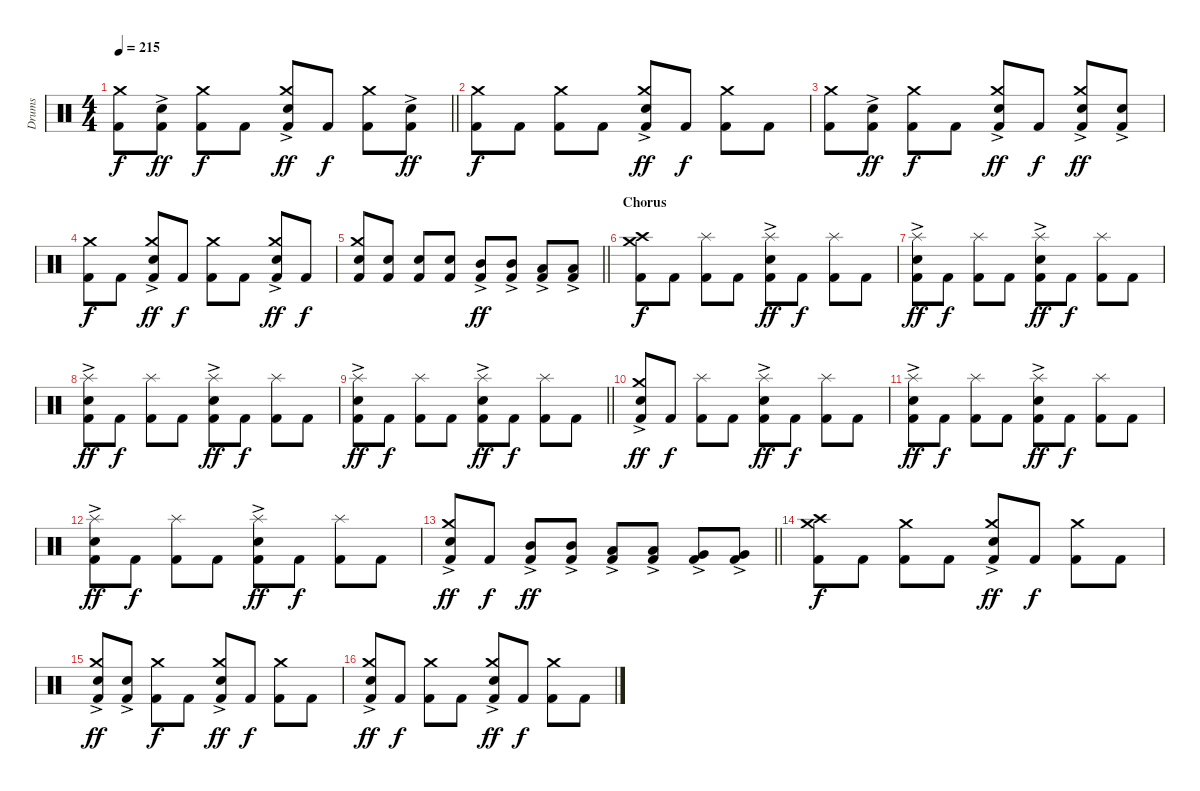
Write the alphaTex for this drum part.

\track ("Drums" "Drums") {instrument percussion}
\staff {score}
\articulation defaults
\ts (4 4)
\tempo 215
\clef neutral
\barLineRight lightlight
\ks c
("Kick (hit) 2" "Crash medium (hit)").8{dy f} ("Kick (hit) 2" "Snare (hit) 2"{ac}).8{dy ff} ("Kick (hit) 2" "Crash medium (hit)").8{dy f} "Kick (hit) 2".8 ("Kick (hit) 2" "Snare (hit) 2"{ac} "Crash medium (hit)").8{dy ff} "Kick (hit) 2".8{dy f} ("Kick (hit) 2" "Crash medium (hit)").8 ("Kick (hit) 2" "Snare (hit) 2"{ac}).8{dy ff} |
\section ("" "")
("Kick (hit) 2" "Crash medium (hit)").8{dy f} "Kick (hit) 2".8 ("Kick (hit) 2" "Crash medium (hit)").8 "Kick (hit) 2".8 ("Kick (hit) 2" "Snare (hit) 2"{ac} "Crash medium (hit)").8{dy ff} "Kick (hit) 2".8{dy f} ("Kick (hit) 2" "Crash medium (hit)").8 "Kick (hit) 2".8 |
("Kick (hit) 2" "Crash medium (hit)").8 ("Kick (hit) 2" "Snare (hit) 2"{ac}).8{dy ff} ("Kick (hit) 2" "Crash medium (hit)").8{dy f} "Kick (hit) 2".8 ("Kick (hit) 2" "Snare (hit) 2"{ac} "Crash medium (hit)").8{dy ff} "Kick (hit) 2".8{dy f} ("Kick (hit) 2" "Snare (hit) 2"{ac} "Crash medium (hit)").8{dy ff} ("Kick (hit) 2" "Snare (hit) 2"{ac}).8 |
("Kick (hit) 2" "Crash medium (hit)").8{dy f} "Kick (hit) 2".8 ("Kick (hit) 2" "Snare (hit) 2"{ac} "Crash medium (hit)").8{dy ff} "Kick (hit) 2".8{dy f} ("Kick (hit) 2" "Crash medium (hit)").8 "Kick (hit) 2".8 ("Kick (hit) 2" "Snare (hit) 2"{ac} "Crash medium (hit)").8{dy ff} "Kick (hit) 2".8{dy f} |
\barLineRight lightlight
("Kick (hit) 2" "Snare (hit) 2" "Crash medium (hit)").8 ("Kick (hit) 2" "Snare (hit) 2").8 ("Kick (hit) 2" "Snare (hit) 2").8 ("Kick (hit) 2" "Snare (hit) 2").8 ("Kick (hit) 2" "Mid Tom (hit)"{ac}).8{dy ff} ("Kick (hit) 2" "Mid Tom (hit)"{ac}).8 ("Kick (hit) 2" "Low Tom (hit)"{ac}).8 ("Kick (hit) 2" "Low Tom (hit)"{ac}).8 |
\section ("" "Chorus")
("Kick (hit) 2" "Crash medium (hit)" "Crash high (hit)").8{dy f} "Kick (hit) 2".8 ("Kick (hit) 2" "Splash (hit)").8 "Kick (hit) 2".8 ("Kick (hit) 2" "Snare (hit) 2"{ac} "Splash (hit)").8{dy ff} "Kick (hit) 2".8{dy f} ("Kick (hit) 2" "Splash (hit)").8 "Kick (hit) 2".8 |
("Kick (hit) 2" "Snare (hit) 2"{ac} "Splash (hit)").8{dy ff} "Kick (hit) 2".8{dy f} ("Kick (hit) 2" "Splash (hit)").8 "Kick (hit) 2".8 ("Kick (hit) 2" "Snare (hit) 2"{ac} "Splash (hit)").8{dy ff} "Kick (hit) 2".8{dy f} ("Kick (hit) 2" "Splash (hit)").8 "Kick (hit) 2".8 |
("Kick (hit) 2" "Snare (hit) 2"{ac} "Splash (hit)").8{dy ff} "Kick (hit) 2".8{dy f} ("Kick (hit) 2" "Splash (hit)").8 "Kick (hit) 2".8 ("Kick (hit) 2" "Snare (hit) 2"{ac} "Splash (hit)").8{dy ff} "Kick (hit) 2".8{dy f} ("Kick (hit) 2" "Splash (hit)").8 "Kick (hit) 2".8 |
\barLineRight lightlight
("Kick (hit) 2" "Snare (hit) 2"{ac} "Splash (hit)").8{dy ff} "Kick (hit) 2".8{dy f} ("Kick (hit) 2" "Splash (hit)").8 "Kick (hit) 2".8 ("Kick (hit) 2" "Snare (hit) 2"{ac} "Splash (hit)").8{dy ff} "Kick (hit) 2".8{dy f} ("Kick (hit) 2" "Splash (hit)").8 "Kick (hit) 2".8 |
\section ("" "")
("Kick (hit) 2" "Snare (hit) 2"{ac} "Crash medium (hit)").8{dy ff} "Kick (hit) 2".8{dy f} ("Kick (hit) 2" "Splash (hit)").8 "Kick (hit) 2".8 ("Kick (hit) 2" "Snare (hit) 2"{ac} "Splash (hit)").8{dy ff} "Kick (hit) 2".8{dy f} ("Kick (hit) 2" "Splash (hit)").8 "Kick (hit) 2".8 |
("Kick (hit) 2" "Snare (hit) 2"{ac} "Splash (hit)").8{dy ff} "Kick (hit) 2".8{dy f} ("Kick (hit) 2" "Splash (hit)").8 "Kick (hit) 2".8 ("Kick (hit) 2" "Snare (hit) 2"{ac} "Splash (hit)").8{dy ff} "Kick (hit) 2".8{dy f} ("Kick (hit) 2" "Splash (hit)").8 "Kick (hit) 2".8 |
("Kick (hit) 2" "Snare (hit) 2"{ac} "Splash (hit)").8{dy ff} "Kick (hit) 2".8{dy f} ("Kick (hit) 2" "Splash (hit)").8 "Kick (hit) 2".8 ("Kick (hit) 2" "Snare (hit) 2"{ac} "Splash (hit)").8{dy ff} "Kick (hit) 2".8{dy f} ("Kick (hit) 2" "Splash (hit)").8 "Kick (hit) 2".8 |
\barLineRight lightlight
("Kick (hit) 2" "Snare (hit) 2"{ac} "Crash medium (hit)").8{dy ff} "Kick (hit) 2".8{dy f} ("Kick (hit) 2" "Mid Tom (hit)"{ac}).8{dy ff} ("Kick (hit) 2" "Mid Tom (hit)"{ac}).8 ("Kick (hit) 2" "Low Tom (hit)"{ac}).8 ("Kick (hit) 2" "Low Tom (hit)"{ac}).8 ("Kick (hit) 2" "Very Low Tom (hit)"{ac}).8 ("Kick (hit) 2" "Very Low Tom (hit)"{ac}).8 |
\section ("" "")
("Kick (hit) 2" "Crash medium (hit)" "Crash high (hit)").8{dy f} "Kick (hit) 2".8 ("Kick (hit) 2" "Crash medium (hit)").8 "Kick (hit) 2".8 ("Kick (hit) 2" "Snare (hit) 2"{ac} "Crash medium (hit)").8{dy ff} "Kick (hit) 2".8{dy f} ("Kick (hit) 2" "Crash medium (hit)").8 "Kick (hit) 2".8 |
("Kick (hit) 2" "Snare (hit) 2"{ac} "Crash medium (hit)").8{dy ff} ("Kick (hit) 2" "Snare (hit) 2"{ac}).8 ("Kick (hit) 2" "Crash medium (hit)").8{dy f} "Kick (hit) 2".8 ("Kick (hit) 2" "Snare (hit) 2"{ac} "Crash medium (hit)").8{dy ff} "Kick (hit) 2".8{dy f} ("Kick (hit) 2" "Crash medium (hit)").8 "Kick (hit) 2".8 |
("Kick (hit) 2" "Snare (hit) 2"{ac} "Crash medium (hit)").8{dy ff} "Kick (hit) 2".8{dy f} ("Kick (hit) 2" "Crash medium (hit)").8 "Kick (hit) 2".8 ("Kick (hit) 2" "Snare (hit) 2"{ac} "Crash medium (hit)").8{dy ff} "Kick (hit) 2".8{dy f} ("Kick (hit) 2" "Crash medium (hit)").8 "Kick (hit) 2".8
